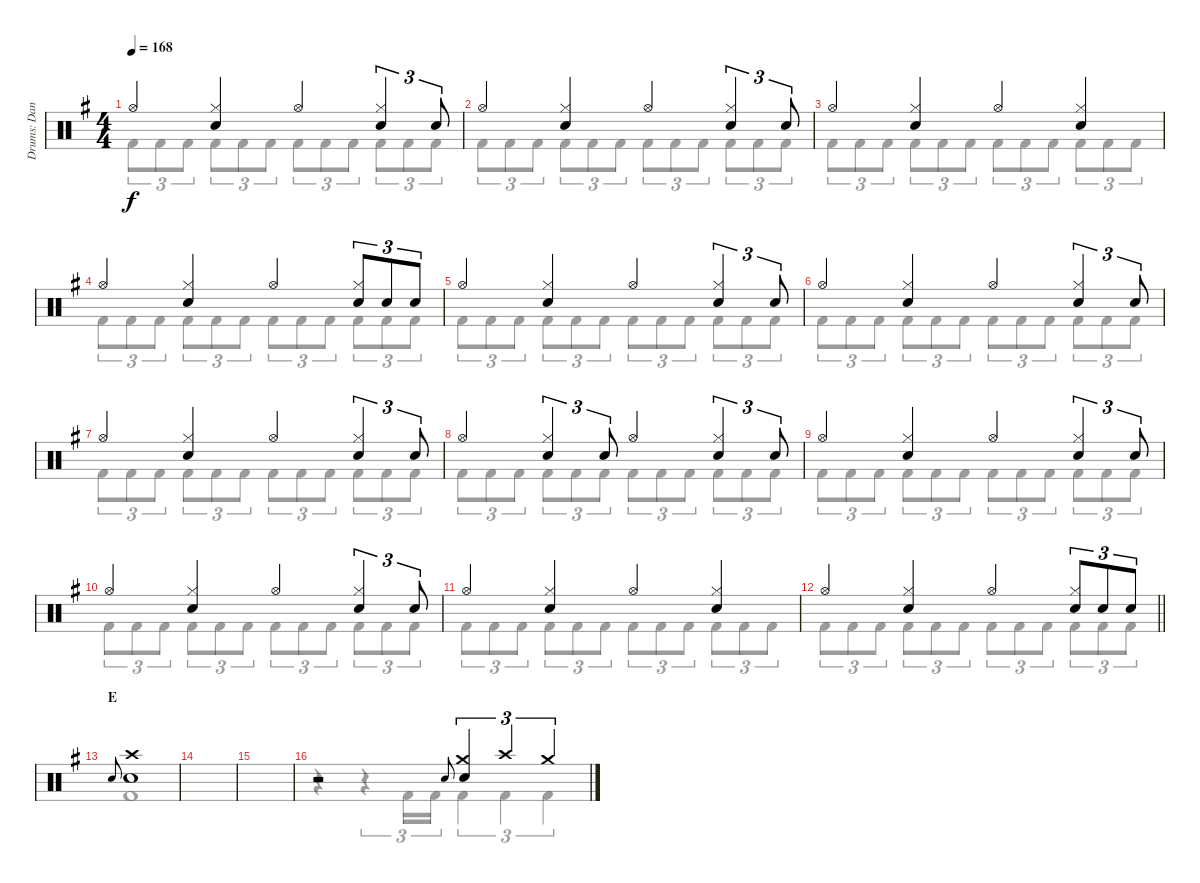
\track ("Drums: Dana" "Drums: Dan") {instrument percussion}
\staff {score}
\articulation defaults
\voice
\ts (4 4)
\tempo 168
\clef neutral
\ks g "Hi-Hat (open)".4{dy f}
("Hi-Hat (closed)" "Snare (hit) 2").4 "Hi-Hat (open)".4 ("Hi-Hat (closed)" "Snare (hit) 2").4{tu (3 2)} "Snare (hit) 2".8{tu (3 2)} |
"Hi-Hat (open)".4 ("Hi-Hat (closed)" "Snare (hit) 2").4 "Hi-Hat (open)".4 ("Hi-Hat (closed)" "Snare (hit) 2").4{tu (3 2)} "Snare (hit) 2".8{tu (3 2)} |
"Hi-Hat (open)".4 ("Hi-Hat (closed)" "Snare (hit) 2").4 "Hi-Hat (open)".4 ("Hi-Hat (closed)" "Snare (hit) 2").4 |
"Hi-Hat (open)".4 ("Hi-Hat (closed)" "Snare (hit) 2").4 "Hi-Hat (open)".4 ("Hi-Hat (closed)" "Snare (hit) 2").8{tu (3 2)} "Snare (hit) 2".8{tu (3 2)} "Snare (hit) 2".8{tu (3 2)} |
"Hi-Hat (open)".4 ("Hi-Hat (closed)" "Snare (hit) 2").4 "Hi-Hat (open)".4 ("Hi-Hat (closed)" "Snare (hit) 2").4{tu (3 2)} "Snare (hit) 2".8{tu (3 2)} |
"Hi-Hat (open)".4 ("Hi-Hat (closed)" "Snare (hit) 2").4 "Hi-Hat (open)".4 ("Hi-Hat (closed)" "Snare (hit) 2").4{tu (3 2)} "Snare (hit) 2".8{tu (3 2)} |
"Hi-Hat (open)".4 ("Hi-Hat (closed)" "Snare (hit) 2").4 "Hi-Hat (open)".4 ("Hi-Hat (closed)" "Snare (hit) 2").4{tu (3 2)} "Snare (hit) 2".8{tu (3 2)} |
"Hi-Hat (open)".4 ("Hi-Hat (closed)" "Snare (hit) 2").4{tu (3 2)} "Snare (hit) 2".8{tu (3 2)} "Hi-Hat (open)".4 ("Hi-Hat (closed)" "Snare (hit) 2").4{tu (3 2)} "Snare (hit) 2".8{tu (3 2)} |
"Hi-Hat (open)".4 ("Hi-Hat (closed)" "Snare (hit) 2").4 "Hi-Hat (open)".4 ("Hi-Hat (closed)" "Snare (hit) 2").4{tu (3 2)} "Snare (hit) 2".8{tu (3 2)} |
"Hi-Hat (open)".4 ("Hi-Hat (closed)" "Snare (hit) 2").4 "Hi-Hat (open)".4 ("Hi-Hat (closed)" "Snare (hit) 2").4{tu (3 2)} "Snare (hit) 2".8{tu (3 2)} |
"Hi-Hat (open)".4 ("Hi-Hat (closed)" "Snare (hit) 2").4 "Hi-Hat (open)".4 ("Hi-Hat (closed)" "Snare (hit) 2").4 |
\barLineRight lightlight "Hi-Hat (open)".4
("Hi-Hat (closed)" "Snare (hit) 2").4 "Hi-Hat (open)".4 ("Hi-Hat (closed)" "Snare (hit) 2").8{tu (3 2)} "Snare (hit) 2".8{tu (3 2)} "Snare (hit) 2".8{tu (3 2)} |
\section ("" "E")
"Electric Snare (hit)".8{gr onbeat} ("Crash high (hit)" "Snare (hit) 2").1 |
|
|
r.2 "Electric Snare (hit)".8{gr onbeat} ("Crash medium (hit)" "Snare (hit) 2").4{tu (3 2)} "Crash high (hit)".4{tu (3 2)} "Crash medium (hit)".4{tu (3 2)}
\voice
\clef neutral
\ottava regular
\simile none
\ks g "Kick (hit) 2".8{tu (3 2) dy f} "Kick (hit) 2".8{tu (3 2)} "Kick (hit) 2".8{tu (3 2)} "Kick (hit) 2".8{tu (3 2)} "Kick (hit) 2".8{tu (3 2)} "Kick (hit) 2".8{tu (3 2)} "Kick (hit) 2".8{tu (3 2)} "Kick (hit) 2".8{tu (3 2)} "Kick (hit) 2".8{tu (3 2)} "Kick (hit) 2".8{tu (3 2)} "Kick (hit) 2".8{tu (3 2)} "Kick (hit) 2".8{tu (3 2)}
|
"Kick (hit) 2".8{tu (3 2)} "Kick (hit) 2".8{tu (3 2)} "Kick (hit) 2".8{tu (3 2)} "Kick (hit) 2".8{tu (3 2)} "Kick (hit) 2".8{tu (3 2)} "Kick (hit) 2".8{tu (3 2)} "Kick (hit) 2".8{tu (3 2)} "Kick (hit) 2".8{tu (3 2)} "Kick (hit) 2".8{tu (3 2)} "Kick (hit) 2".8{tu (3 2)} "Kick (hit) 2".8{tu (3 2)} "Kick (hit) 2".8{tu (3 2)} |
"Kick (hit) 2".8{tu (3 2)} "Kick (hit) 2".8{tu (3 2)} "Kick (hit) 2".8{tu (3 2)} "Kick (hit) 2".8{tu (3 2)} "Kick (hit) 2".8{tu (3 2)} "Kick (hit) 2".8{tu (3 2)} "Kick (hit) 2".8{tu (3 2)} "Kick (hit) 2".8{tu (3 2)} "Kick (hit) 2".8{tu (3 2)} "Kick (hit) 2".8{tu (3 2)} "Kick (hit) 2".8{tu (3 2)} "Kick (hit) 2".8{tu (3 2)} |
"Kick (hit) 2".8{tu (3 2)} "Kick (hit) 2".8{tu (3 2)} "Kick (hit) 2".8{tu (3 2)} "Kick (hit) 2".8{tu (3 2)} "Kick (hit) 2".8{tu (3 2)} "Kick (hit) 2".8{tu (3 2)} "Kick (hit) 2".8{tu (3 2)} "Kick (hit) 2".8{tu (3 2)} "Kick (hit) 2".8{tu (3 2)} "Kick (hit) 2".8{tu (3 2)} "Kick (hit) 2".8{tu (3 2)} "Kick (hit) 2".8{tu (3 2)} |
"Kick (hit) 2".8{tu (3 2)} "Kick (hit) 2".8{tu (3 2)} "Kick (hit) 2".8{tu (3 2)} "Kick (hit) 2".8{tu (3 2)} "Kick (hit) 2".8{tu (3 2)} "Kick (hit) 2".8{tu (3 2)} "Kick (hit) 2".8{tu (3 2)} "Kick (hit) 2".8{tu (3 2)} "Kick (hit) 2".8{tu (3 2)} "Kick (hit) 2".8{tu (3 2)} "Kick (hit) 2".8{tu (3 2)} "Kick (hit) 2".8{tu (3 2)} |
"Kick (hit) 2".8{tu (3 2)} "Kick (hit) 2".8{tu (3 2)} "Kick (hit) 2".8{tu (3 2)} "Kick (hit) 2".8{tu (3 2)} "Kick (hit) 2".8{tu (3 2)} "Kick (hit) 2".8{tu (3 2)} "Kick (hit) 2".8{tu (3 2)} "Kick (hit) 2".8{tu (3 2)} "Kick (hit) 2".8{tu (3 2)} "Kick (hit) 2".8{tu (3 2)} "Kick (hit) 2".8{tu (3 2)} "Kick (hit) 2".8{tu (3 2)} |
"Kick (hit) 2".8{tu (3 2)} "Kick (hit) 2".8{tu (3 2)} "Kick (hit) 2".8{tu (3 2)} "Kick (hit) 2".8{tu (3 2)} "Kick (hit) 2".8{tu (3 2)} "Kick (hit) 2".8{tu (3 2)} "Kick (hit) 2".8{tu (3 2)} "Kick (hit) 2".8{tu (3 2)} "Kick (hit) 2".8{tu (3 2)} "Kick (hit) 2".8{tu (3 2)} "Kick (hit) 2".8{tu (3 2)} "Kick (hit) 2".8{tu (3 2)} |
"Kick (hit) 2".8{tu (3 2)} "Kick (hit) 2".8{tu (3 2)} "Kick (hit) 2".8{tu (3 2)} "Kick (hit) 2".8{tu (3 2)} "Kick (hit) 2".8{tu (3 2)} "Kick (hit) 2".8{tu (3 2)} "Kick (hit) 2".8{tu (3 2)} "Kick (hit) 2".8{tu (3 2)} "Kick (hit) 2".8{tu (3 2)} "Kick (hit) 2".8{tu (3 2)} "Kick (hit) 2".8{tu (3 2)} "Kick (hit) 2".8{tu (3 2)} |
"Kick (hit) 2".8{tu (3 2)} "Kick (hit) 2".8{tu (3 2)} "Kick (hit) 2".8{tu (3 2)} "Kick (hit) 2".8{tu (3 2)} "Kick (hit) 2".8{tu (3 2)} "Kick (hit) 2".8{tu (3 2)} "Kick (hit) 2".8{tu (3 2)} "Kick (hit) 2".8{tu (3 2)} "Kick (hit) 2".8{tu (3 2)} "Kick (hit) 2".8{tu (3 2)} "Kick (hit) 2".8{tu (3 2)} "Kick (hit) 2".8{tu (3 2)} |
"Kick (hit) 2".8{tu (3 2)} "Kick (hit) 2".8{tu (3 2)} "Kick (hit) 2".8{tu (3 2)} "Kick (hit) 2".8{tu (3 2)} "Kick (hit) 2".8{tu (3 2)} "Kick (hit) 2".8{tu (3 2)} "Kick (hit) 2".8{tu (3 2)} "Kick (hit) 2".8{tu (3 2)} "Kick (hit) 2".8{tu (3 2)} "Kick (hit) 2".8{tu (3 2)} "Kick (hit) 2".8{tu (3 2)} "Kick (hit) 2".8{tu (3 2)} |
"Kick (hit) 2".8{tu (3 2)} "Kick (hit) 2".8{tu (3 2)} "Kick (hit) 2".8{tu (3 2)} "Kick (hit) 2".8{tu (3 2)} "Kick (hit) 2".8{tu (3 2)} "Kick (hit) 2".8{tu (3 2)} "Kick (hit) 2".8{tu (3 2)} "Kick (hit) 2".8{tu (3 2)} "Kick (hit) 2".8{tu (3 2)} "Kick (hit) 2".8{tu (3 2)} "Kick (hit) 2".8{tu (3 2)} "Kick (hit) 2".8{tu (3 2)} |
\barLineRight lightlight "Kick (hit) 2".8{tu (3 2)} "Kick (hit) 2".8{tu (3 2)} "Kick (hit) 2".8{tu (3 2)} "Kick (hit) 2".8{tu (3 2)} "Kick (hit) 2".8{tu (3 2)} "Kick (hit) 2".8{tu (3 2)} "Kick (hit) 2".8{tu (3 2)} "Kick (hit) 2".8{tu (3 2)} "Kick (hit) 2".8{tu (3 2)} "Kick (hit) 2".8{tu (3 2)} "Kick (hit) 2".8{tu (3 2)} "Kick (hit) 2".8{tu (3 2)}
|
"Kick (hit) 2".1 |
|
|
r.4 r.4{tu (3 2)} "Kick (hit) 2".16{tu (3 2)} "Kick (hit) 2".16{tu (3 2)} "Kick (hit) 2".4{tu (3 2)} "Kick (hit) 2".4{tu (3 2)} "Kick (hit) 2".4{tu (3 2)}
